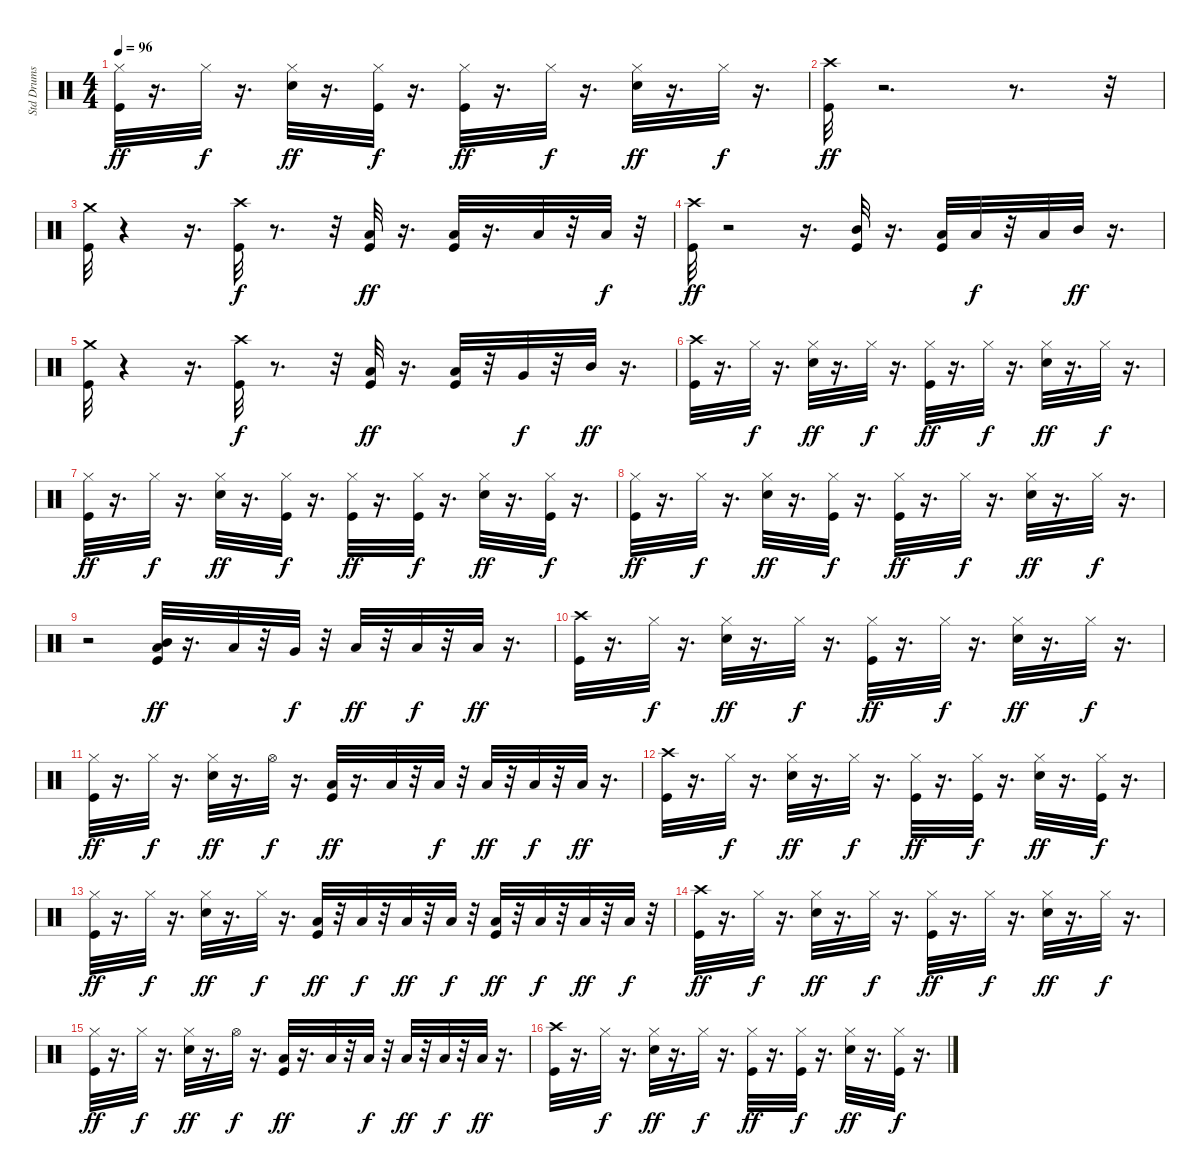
\track ("Std Drums" "Std Drums") {instrument percussion}
\staff {score}
\articulation defaults
\ts (4 4)
\tempo 96
\clef neutral
\ks c
("Hi-Hat (closed)" "Kick (hit)").32{dy ff} r.16{d} "Hi-Hat (closed)".32{dy f} r.16{d} ("Hi-Hat (closed)" "Snare (hit) 2").32{dy ff} r.16{d} ("Hi-Hat (closed)" "Kick (hit)").32{dy f} r.16{d} ("Hi-Hat (closed)" "Kick (hit)").32{dy ff} r.16{d} "Hi-Hat (closed)".32{dy f} r.16{d} ("Hi-Hat (closed)" "Snare (hit) 2").32{dy ff} r.16{d} "Hi-Hat (closed)".32{dy f} r.16{d} |
("Crash high (hit)" "Kick (hit)").32{dy ff} r.2{d} r.8{d} r.32 |
("Crash medium (hit)" "Kick (hit)").32 r.4 r.16{d} ("Kick (hit)" "Crash high (hit)").32{dy f} r.8{d} r.32 ("Low Tom (hit)" "Kick (hit)").32{dy ff} r.16{d} ("Low Tom (hit)" "Kick (hit)").32 r.16{d} "Low Floor Tom (hit)".32 r.32 "Low Floor Tom (hit)".32{dy f} r.32 |
("Crash high (hit)" "Kick (hit)").32{dy ff} r.2 r.16{d} ("Mid Tom (hit)" "Kick (hit)").32 r.16{d} ("Kick (hit)" "Low Tom (hit)").32 "Low Tom (hit)".32{dy f} r.32 "Low Floor Tom (hit)".32 "Mid Tom (hit)".32{dy ff} r.16{d} |
("Crash medium (hit)" "Kick (hit)").32 r.4 r.16{d} ("Kick (hit)" "Crash high (hit)").32{dy f} r.8{d} r.32 ("Low Floor Tom (hit)" "Kick (hit)").32{dy ff} r.16{d} ("Low Floor Tom (hit)" "Kick (hit)").32 r.32 "Very Low Tom (hit)".32{dy f} r.32 "Mid Tom (hit)".32{dy ff} r.16{d} |
("Crash high (hit)" "Kick (hit)").32 r.16{d} "Hi-Hat (closed)".32{dy f} r.16{d} ("Hi-Hat (closed)" "Snare (hit) 2").32{dy ff} r.16{d} "Hi-Hat (closed)".32{dy f} r.16{d} ("Hi-Hat (closed)" "Kick (hit)").32{dy ff} r.16{d} "Hi-Hat (closed)".32{dy f} r.16{d} ("Hi-Hat (closed)" "Snare (hit) 2").32{dy ff} r.16{d} "Hi-Hat (closed)".32{dy f} r.16{d} |
("Hi-Hat (closed)" "Kick (hit)").32{dy ff} r.16{d} "Hi-Hat (closed)".32{dy f} r.16{d} ("Hi-Hat (closed)" "Snare (hit) 2").32{dy ff} r.16{d} ("Hi-Hat (closed)" "Kick (hit)").32{dy f} r.16{d} ("Hi-Hat (closed)" "Kick (hit)").32{dy ff} r.16{d} ("Hi-Hat (closed)" "Kick (hit)").32{dy f} r.16{d} ("Hi-Hat (closed)" "Snare (hit) 2").32{dy ff} r.16{d} ("Hi-Hat (closed)" "Kick (hit)").32{dy f} r.16{d} |
("Hi-Hat (closed)" "Kick (hit)").32{dy ff} r.16{d} "Hi-Hat (closed)".32{dy f} r.16{d} ("Hi-Hat (closed)" "Snare (hit) 2").32{dy ff} r.16{d} ("Hi-Hat (closed)" "Kick (hit)").32{dy f} r.16{d} ("Hi-Hat (closed)" "Kick (hit)").32{dy ff} r.16{d} "Hi-Hat (closed)".32{dy f} r.16{d} ("Hi-Hat (closed)" "Snare (hit) 2").32{dy ff} r.16{d} "Hi-Hat (closed)".32{dy f} r.16{d} |
r.2 ("Mid Tom (hit)" "Kick (hit)" "Low Floor Tom (hit)").32{dy ff} r.16{d} "Low Tom (hit)".32 r.32 "Very Low Tom (hit)".32{dy f} r.32 "Low Floor Tom (hit)".32{dy ff} r.32 "Low Floor Tom (hit)".32{dy f} r.32 "Low Floor Tom (hit)".32{dy ff} r.16{d} |
("Kick (hit)" "Crash high (hit)").32 r.16{d} "Hi-Hat (closed)".32{dy f} r.16{d} ("Hi-Hat (closed)" "Snare (hit) 2").32{dy ff} r.16{d} "Hi-Hat (closed)".32{dy f} r.16{d} ("Hi-Hat (closed)" "Kick (hit)").32{dy ff} r.16{d} "Hi-Hat (closed)".32{dy f} r.16{d} ("Hi-Hat (closed)" "Snare (hit) 2").32{dy ff} r.16{d} "Hi-Hat (closed)".32{dy f} r.16{d} |
("Hi-Hat (closed)" "Kick (hit)").32{dy ff} r.16{d} "Hi-Hat (closed)".32{dy f} r.16{d} ("Hi-Hat (closed)" "Snare (hit) 2").32{dy ff} r.16{d} "Hi-Hat (open)".32{dy f} r.16{d} ("Low Tom (hit)" "Kick (hit)").32{dy ff} r.16{d} "Low Floor Tom (hit)".32 r.32 "Low Floor Tom (hit)".32{dy f} r.32 "Low Floor Tom (hit)".32{dy ff} r.32 "Low Floor Tom (hit)".32{dy f} r.32 "Low Floor Tom (hit)".32{dy ff} r.16{d} |
("Kick (hit)" "Crash high (hit)").32 r.16{d} "Hi-Hat (closed)".32{dy f} r.16{d} ("Hi-Hat (closed)" "Snare (hit) 2").32{dy ff} r.16{d} "Hi-Hat (closed)".32{dy f} r.16{d} ("Hi-Hat (closed)" "Kick (hit)").32{dy ff} r.16{d} ("Hi-Hat (closed)" "Kick (hit)").32{dy f} r.16{d} ("Hi-Hat (closed)" "Snare (hit) 2").32{dy ff} r.16{d} ("Hi-Hat (closed)" "Kick (hit)").32{dy f} r.16{d} |
("Hi-Hat (closed)" "Kick (hit)").32{dy ff} r.16{d} "Hi-Hat (closed)".32{dy f} r.16{d} ("Hi-Hat (closed)" "Snare (hit) 2").32{dy ff} r.16{d} "Hi-Hat (closed)".32{dy f} r.16{d} ("Kick (hit)" "Low Tom (hit)").32{dy ff} r.32 "Low Tom (hit)".32{dy f} r.32 "Low Tom (hit)".32{dy ff} r.32 "Low Tom (hit)".32{dy f} r.32 ("Kick (hit)" "Low Tom (hit)").32{dy ff} r.32 "Low Tom (hit)".32{dy f} r.32 "Low Tom (hit)".32{dy ff} r.32 "Low Tom (hit)".32{dy f} r.32 |
("Crash high (hit)" "Kick (hit)").32{dy ff} r.16{d} "Hi-Hat (closed)".32{dy f} r.16{d} ("Hi-Hat (closed)" "Snare (hit) 2").32{dy ff} r.16{d} "Hi-Hat (closed)".32{dy f} r.16{d} ("Hi-Hat (closed)" "Kick (hit)").32{dy ff} r.16{d} "Hi-Hat (closed)".32{dy f} r.16{d} ("Hi-Hat (closed)" "Snare (hit) 2").32{dy ff} r.16{d} "Hi-Hat (closed)".32{dy f} r.16{d} |
("Hi-Hat (closed)" "Kick (hit)").32{dy ff} r.16{d} "Hi-Hat (closed)".32{dy f} r.16{d} ("Hi-Hat (closed)" "Snare (hit) 2").32{dy ff} r.16{d} "Hi-Hat (open)".32{dy f} r.16{d} ("Kick (hit)" "Low Tom (hit)").32{dy ff} r.16{d} "Low Floor Tom (hit)".32 r.32 "Low Floor Tom (hit)".32{dy f} r.32 "Low Floor Tom (hit)".32{dy ff} r.32 "Low Floor Tom (hit)".32{dy f} r.32 "Low Floor Tom (hit)".32{dy ff} r.16{d} |
("Crash high (hit)" "Kick (hit)").32 r.16{d} "Hi-Hat (closed)".32{dy f} r.16{d} ("Hi-Hat (closed)" "Snare (hit) 2").32{dy ff} r.16{d} "Hi-Hat (closed)".32{dy f} r.16{d} ("Hi-Hat (closed)" "Kick (hit)").32{dy ff} r.16{d} ("Hi-Hat (closed)" "Kick (hit)").32{dy f} r.16{d} ("Hi-Hat (closed)" "Snare (hit) 2").32{dy ff} r.16{d} ("Hi-Hat (closed)" "Kick (hit)").32{dy f} r.16{d}
